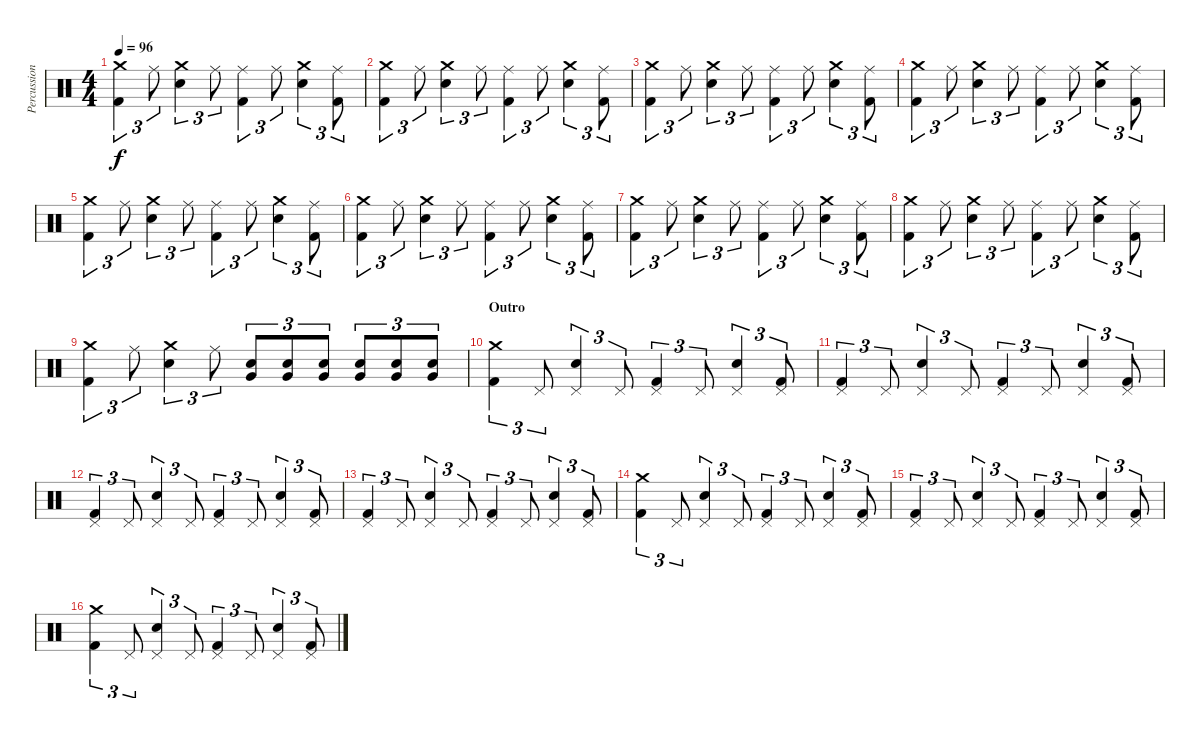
\track ("Percussioni" "Percussion") {instrument percussion}
\staff {score}
\articulation defaults
\ts (4 4)
\tempo 96
\clef neutral
\ks c
("Kick (hit) 2" "Crash medium (hit)").4{tu (3 2) dy f} "Ride (middle)".8{tu (3 2)} ("Electric Snare (hit)" "Crash medium (hit)").4{tu (3 2)} "Ride (middle)".8{tu (3 2)} ("Kick (hit) 2" "Ride (middle)").4{tu (3 2)} "Ride (middle)".8{tu (3 2)} ("Electric Snare (hit)" "Crash medium (hit)").4{tu (3 2)} ("Kick (hit) 2" "Ride (middle)").8{tu (3 2)} |
("Kick (hit) 2" "Crash medium (hit)").4{tu (3 2)} "Ride (middle)".8{tu (3 2)} ("Electric Snare (hit)" "Crash medium (hit)").4{tu (3 2)} "Ride (middle)".8{tu (3 2)} ("Kick (hit) 2" "Ride (middle)").4{tu (3 2)} "Ride (middle)".8{tu (3 2)} ("Electric Snare (hit)" "Crash medium (hit)").4{tu (3 2)} ("Kick (hit) 2" "Ride (middle)").8{tu (3 2)} |
("Kick (hit) 2" "Crash medium (hit)").4{tu (3 2)} "Ride (middle)".8{tu (3 2)} ("Electric Snare (hit)" "Crash medium (hit)").4{tu (3 2)} "Ride (middle)".8{tu (3 2)} ("Kick (hit) 2" "Ride (middle)").4{tu (3 2)} "Ride (middle)".8{tu (3 2)} ("Electric Snare (hit)" "Crash medium (hit)").4{tu (3 2)} ("Kick (hit) 2" "Ride (middle)").8{tu (3 2)} |
("Kick (hit) 2" "Crash medium (hit)").4{tu (3 2)} "Ride (middle)".8{tu (3 2)} ("Electric Snare (hit)" "Crash medium (hit)").4{tu (3 2)} "Ride (middle)".8{tu (3 2)} ("Kick (hit) 2" "Ride (middle)").4{tu (3 2)} "Ride (middle)".8{tu (3 2)} ("Electric Snare (hit)" "Crash medium (hit)").4{tu (3 2)} ("Kick (hit) 2" "Ride (middle)").8{tu (3 2)} |
("Kick (hit) 2" "Crash medium (hit)").4{tu (3 2)} "Ride (middle)".8{tu (3 2)} ("Electric Snare (hit)" "Crash medium (hit)").4{tu (3 2)} "Ride (middle)".8{tu (3 2)} ("Kick (hit) 2" "Ride (middle)").4{tu (3 2)} "Ride (middle)".8{tu (3 2)} ("Electric Snare (hit)" "Crash medium (hit)").4{tu (3 2)} ("Kick (hit) 2" "Ride (middle)").8{tu (3 2)} |
("Kick (hit) 2" "Crash medium (hit)").4{tu (3 2)} "Ride (middle)".8{tu (3 2)} ("Electric Snare (hit)" "Crash medium (hit)").4{tu (3 2)} "Ride (middle)".8{tu (3 2)} ("Kick (hit) 2" "Ride (middle)").4{tu (3 2)} "Ride (middle)".8{tu (3 2)} ("Electric Snare (hit)" "Crash medium (hit)").4{tu (3 2)} ("Kick (hit) 2" "Ride (middle)").8{tu (3 2)} |
("Kick (hit) 2" "Crash medium (hit)").4{tu (3 2)} "Ride (middle)".8{tu (3 2)} ("Electric Snare (hit)" "Crash medium (hit)").4{tu (3 2)} "Ride (middle)".8{tu (3 2)} ("Kick (hit) 2" "Ride (middle)").4{tu (3 2)} "Ride (middle)".8{tu (3 2)} ("Electric Snare (hit)" "Crash medium (hit)").4{tu (3 2)} ("Kick (hit) 2" "Ride (middle)").8{tu (3 2)} |
("Kick (hit) 2" "Crash medium (hit)").4{tu (3 2)} "Ride (middle)".8{tu (3 2)} ("Electric Snare (hit)" "Crash medium (hit)").4{tu (3 2)} "Ride (middle)".8{tu (3 2)} ("Kick (hit) 2" "Ride (middle)").4{tu (3 2)} "Ride (middle)".8{tu (3 2)} ("Electric Snare (hit)" "Crash medium (hit)").4{tu (3 2)} ("Kick (hit) 2" "Ride (middle)").8{tu (3 2)} |
("Kick (hit) 2" "Crash medium (hit)").4{tu (3 2)} "Ride (middle)".8{tu (3 2)} ("Electric Snare (hit)" "Crash medium (hit)").4{tu (3 2)} "Ride (middle)".8{tu (3 2)} ("Electric Snare (hit)" "Very Low Tom (hit)").8{tu (3 2)} ("Electric Snare (hit)" "Very Low Tom (hit)").8{tu (3 2)} ("Electric Snare (hit)" "Very Low Tom (hit)").8{tu (3 2)} ("Electric Snare (hit)" "Very Low Tom (hit)").8{tu (3 2)} ("Electric Snare (hit)" "Very Low Tom (hit)").8{tu (3 2)} ("Electric Snare (hit)" "Very Low Tom (hit)").8{tu (3 2)} |
\section ("" "Outro")
("Kick (hit) 2" "Crash medium (hit)").4{tu (3 2)} "Pedal Hi-Hat (hit)".8{tu (3 2)} ("Electric Snare (hit)" "Pedal Hi-Hat (hit)").4{tu (3 2)} "Pedal Hi-Hat (hit)".8{tu (3 2)} ("Kick (hit) 2" "Pedal Hi-Hat (hit)").4{tu (3 2)} "Pedal Hi-Hat (hit)".8{tu (3 2)} ("Electric Snare (hit)" "Pedal Hi-Hat (hit)").4{tu (3 2)} ("Kick (hit) 2" "Pedal Hi-Hat (hit)").8{tu (3 2)} |
("Kick (hit) 2" "Pedal Hi-Hat (hit)").4{tu (3 2)} "Pedal Hi-Hat (hit)".8{tu (3 2)} ("Electric Snare (hit)" "Pedal Hi-Hat (hit)").4{tu (3 2)} "Pedal Hi-Hat (hit)".8{tu (3 2)} ("Kick (hit) 2" "Pedal Hi-Hat (hit)").4{tu (3 2)} "Pedal Hi-Hat (hit)".8{tu (3 2)} ("Electric Snare (hit)" "Pedal Hi-Hat (hit)").4{tu (3 2)} ("Kick (hit) 2" "Pedal Hi-Hat (hit)").8{tu (3 2)} |
("Kick (hit) 2" "Pedal Hi-Hat (hit)").4{tu (3 2)} "Pedal Hi-Hat (hit)".8{tu (3 2)} ("Electric Snare (hit)" "Pedal Hi-Hat (hit)").4{tu (3 2)} "Pedal Hi-Hat (hit)".8{tu (3 2)} ("Kick (hit) 2" "Pedal Hi-Hat (hit)").4{tu (3 2)} "Pedal Hi-Hat (hit)".8{tu (3 2)} ("Electric Snare (hit)" "Pedal Hi-Hat (hit)").4{tu (3 2)} ("Kick (hit) 2" "Pedal Hi-Hat (hit)").8{tu (3 2)} |
("Kick (hit) 2" "Pedal Hi-Hat (hit)").4{tu (3 2)} "Pedal Hi-Hat (hit)".8{tu (3 2)} ("Electric Snare (hit)" "Pedal Hi-Hat (hit)").4{tu (3 2)} "Pedal Hi-Hat (hit)".8{tu (3 2)} ("Kick (hit) 2" "Pedal Hi-Hat (hit)").4{tu (3 2)} "Pedal Hi-Hat (hit)".8{tu (3 2)} ("Electric Snare (hit)" "Pedal Hi-Hat (hit)").4{tu (3 2)} ("Kick (hit) 2" "Pedal Hi-Hat (hit)").8{tu (3 2)} |
("Kick (hit) 2" "Crash medium (hit)").4{tu (3 2)} "Pedal Hi-Hat (hit)".8{tu (3 2)} ("Electric Snare (hit)" "Pedal Hi-Hat (hit)").4{tu (3 2)} "Pedal Hi-Hat (hit)".8{tu (3 2)} ("Kick (hit) 2" "Pedal Hi-Hat (hit)").4{tu (3 2)} "Pedal Hi-Hat (hit)".8{tu (3 2)} ("Electric Snare (hit)" "Pedal Hi-Hat (hit)").4{tu (3 2)} ("Kick (hit) 2" "Pedal Hi-Hat (hit)").8{tu (3 2)} |
("Kick (hit) 2" "Pedal Hi-Hat (hit)").4{tu (3 2)} "Pedal Hi-Hat (hit)".8{tu (3 2)} ("Electric Snare (hit)" "Pedal Hi-Hat (hit)").4{tu (3 2)} "Pedal Hi-Hat (hit)".8{tu (3 2)} ("Kick (hit) 2" "Pedal Hi-Hat (hit)").4{tu (3 2)} "Pedal Hi-Hat (hit)".8{tu (3 2)} ("Electric Snare (hit)" "Pedal Hi-Hat (hit)").4{tu (3 2)} ("Kick (hit) 2" "Pedal Hi-Hat (hit)").8{tu (3 2)} |
("Kick (hit) 2" "Crash medium (hit)").4{tu (3 2)} "Pedal Hi-Hat (hit)".8{tu (3 2)} ("Electric Snare (hit)" "Pedal Hi-Hat (hit)").4{tu (3 2)} "Pedal Hi-Hat (hit)".8{tu (3 2)} ("Kick (hit) 2" "Pedal Hi-Hat (hit)").4{tu (3 2)} "Pedal Hi-Hat (hit)".8{tu (3 2)} ("Electric Snare (hit)" "Pedal Hi-Hat (hit)").4{tu (3 2)} ("Kick (hit) 2" "Pedal Hi-Hat (hit)").8{tu (3 2)}
